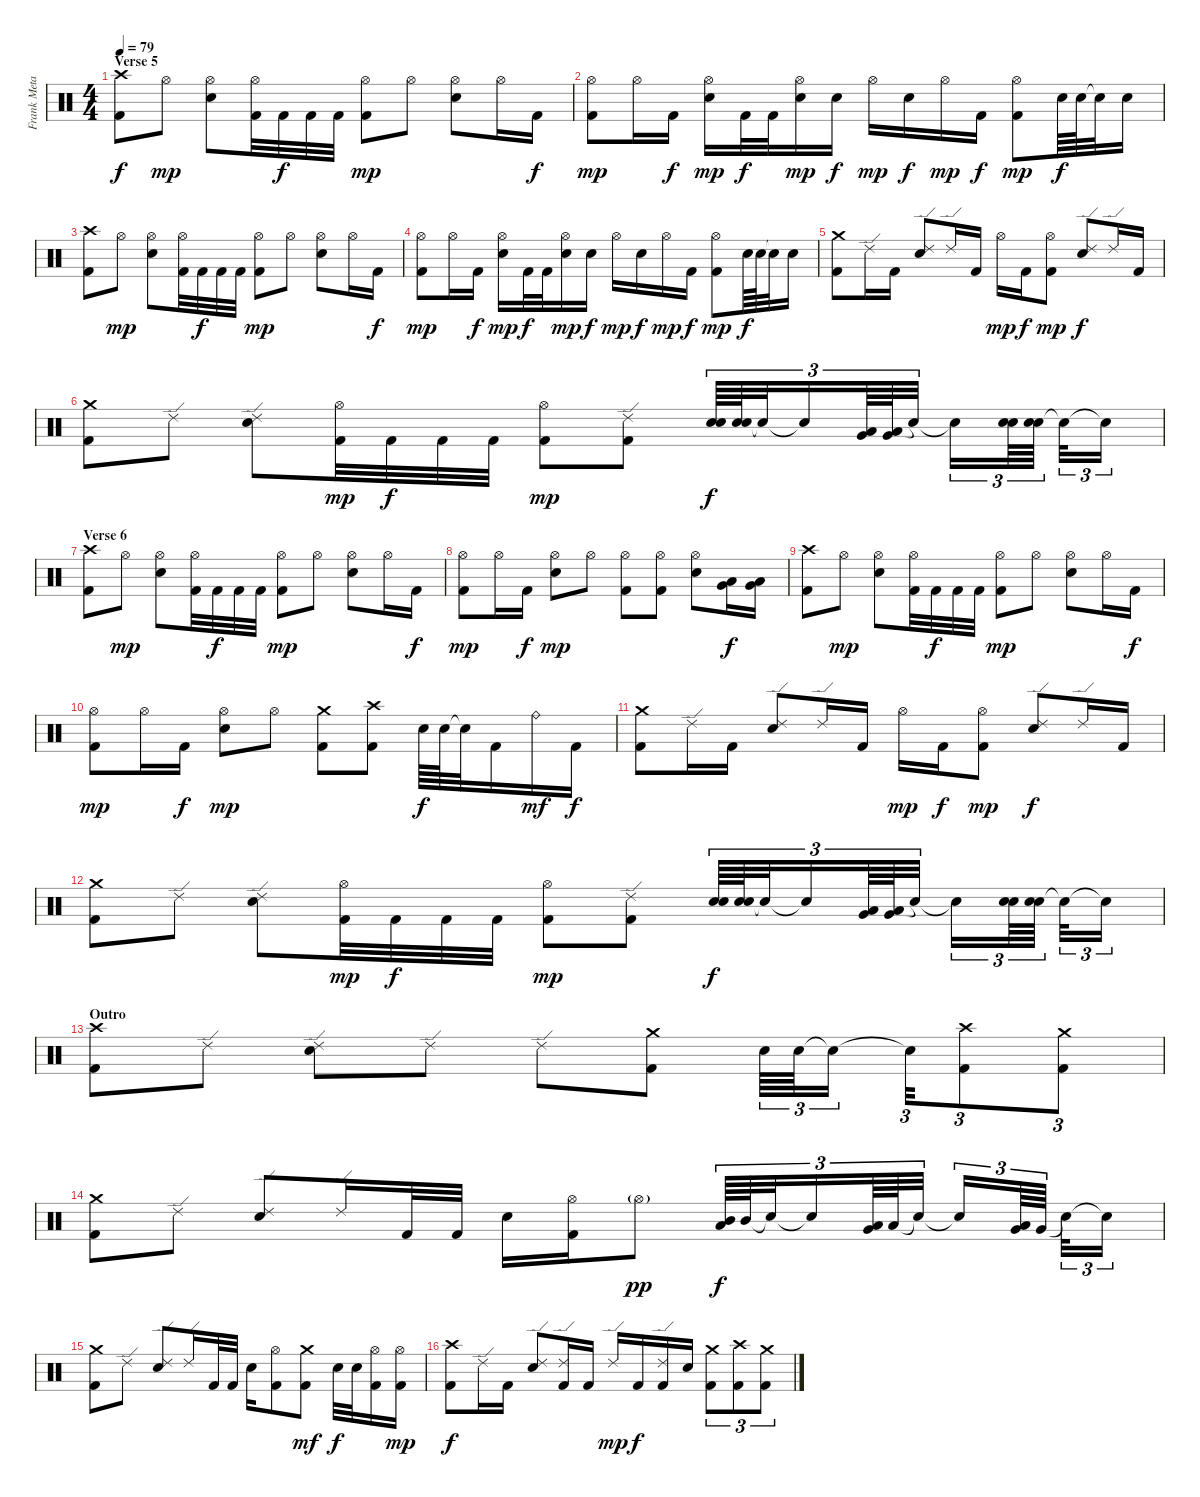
\track ("Frank Metayer" "Frank Meta") {instrument percussion}
\staff {score}
\articulation defaults
\ts (4 4)
\section ("" "Verse 5")
\tempo 79
\clef neutral
\ks c
("Kick (hit) 2" "Crash high (hit)").8{dy f} "Hi-Hat (open)".8{dy mp} ("Hi-Hat (open)" "Snare (hit) 2").8 ("Kick (hit) 2" "Hi-Hat (open)").32 "Kick (hit) 2".32{dy f} "Kick (hit) 2".32 "Kick (hit) 2".32 ("Kick (hit) 2" "Hi-Hat (open)").8{dy mp} "Hi-Hat (open)".8 ("Hi-Hat (open)" "Snare (hit) 2").8 "Hi-Hat (open)".16 "Kick (hit) 2".16{dy f} |
("Kick (hit) 2" "Hi-Hat (open)").8{dy mp} "Hi-Hat (open)".16 "Kick (hit) 2".16{dy f} ("Hi-Hat (open)" "Snare (hit) 2").16{dy mp} "Kick (hit) 2".32{dy f} "Kick (hit) 2".32 ("Hi-Hat (open)" "Snare (hit) 2").16{dy mp} "Snare (hit) 2".16{dy f} "Hi-Hat (open)".16{dy mp} "Snare (hit) 2".16{dy f} "Hi-Hat (open)".16{dy mp} "Kick (hit) 2".16{dy f} ("Kick (hit) 2" "Hi-Hat (open)").8{dy mp} "Snare (hit) 2".64{dy f} "Snare (hit) 2".64 "Snare (hit)"{t}.32 "Snare (hit) 2".16 |
("Kick (hit) 2" "Crash high (hit)").8 "Hi-Hat (open)".8{dy mp} ("Hi-Hat (open)" "Snare (hit) 2").8 ("Kick (hit) 2" "Hi-Hat (open)").32 "Kick (hit) 2".32{dy f} "Kick (hit) 2".32 "Kick (hit) 2".32 ("Kick (hit) 2" "Hi-Hat (open)").8{dy mp} "Hi-Hat (open)".8 ("Hi-Hat (open)" "Snare (hit) 2").8 "Hi-Hat (open)".16 "Kick (hit) 2".16{dy f} |
("Kick (hit) 2" "Hi-Hat (open)").8{dy mp} "Hi-Hat (open)".16 "Kick (hit) 2".16{dy f} ("Hi-Hat (open)" "Snare (hit) 2").16{dy mp} "Kick (hit) 2".32{dy f} "Kick (hit) 2".32 ("Hi-Hat (open)" "Snare (hit) 2").16{dy mp} "Snare (hit) 2".16{dy f} "Hi-Hat (open)".16{dy mp} "Snare (hit) 2".16{dy f} "Hi-Hat (open)".16{dy mp} "Kick (hit) 2".16{dy f} ("Kick (hit) 2" "Hi-Hat (open)").8{dy mp} "Snare (hit) 2".64{dy f} "Snare (hit) 2".64 "Snare (hit)"{t}.32 "Snare (hit) 2".16 |
("Kick (hit) 2" "Crash medium (hit)").8 "Ride (edge) 2".16 "Kick (hit) 2".16 ("Ride (edge) 2" "Snare (hit) 2").8 "Ride (edge) 2".16 "Kick (hit) 2".16 "Hi-Hat (open)".16{dy mp} "Kick (hit) 2".16{dy f} ("Kick (hit) 2" "Hi-Hat (open)").8{dy mp} ("Ride (edge) 2" "Snare (hit) 2").8{dy f} "Ride (edge) 2".16 "Kick (hit) 2".16 |
("Kick (hit) 2" "Crash medium (hit)").8 "Ride (edge) 2".8 ("Ride (edge) 2" "Snare (hit) 2").8 ("Kick (hit) 2" "Hi-Hat (open)").32{dy mp} "Kick (hit) 2".32{dy f} "Kick (hit) 2".32 "Kick (hit) 2".32 ("Kick (hit) 2" "Hi-Hat (open)").8{dy mp} ("Kick (hit) 2" "Ride (edge) 2").8 ("Snare (hit) 2" "Snare (hit) 2").64{tu (3 2) dy f} ("Snare (hit) 2" "Snare (hit) 2").64{tu (3 2)} "Snare (hit)"{t}.32{tu (3 2)} "Snare (hit)"{t}.16{tu (3 2)} ("Low Tom (hit)" "Very Low Tom (hit)").64{tu (3 2)} ("Low Tom (hit)" "Very Low Tom (hit)").64{tu (3 2)} "Snare (hit)"{t}.32{tu (3 2)} "Snare (hit)"{t}.16{tu (3 2)} ("Snare (hit) 2" "Snare (hit) 2").64{tu (3 2)} ("Snare (hit) 2" "Snare (hit) 2").64{tu (3 2)} "Snare (hit)"{t}.32{tu (3 2)} "Snare (hit)"{t}.16{tu (3 2)} |
\section ("" "Verse 6")
("Kick (hit) 2" "Crash high (hit)").8 "Hi-Hat (open)".8{dy mp} ("Hi-Hat (open)" "Snare (hit) 2").8 ("Kick (hit) 2" "Hi-Hat (open)").32 "Kick (hit) 2".32{dy f} "Kick (hit) 2".32 "Kick (hit) 2".32 ("Kick (hit) 2" "Hi-Hat (open)").8{dy mp} "Hi-Hat (open)".8 ("Hi-Hat (open)" "Snare (hit) 2").8 "Hi-Hat (open)".16 "Kick (hit) 2".16{dy f} |
("Kick (hit) 2" "Hi-Hat (open)").8{dy mp} "Hi-Hat (open)".16 "Kick (hit) 2".16{dy f} ("Hi-Hat (open)" "Snare (hit) 2").8{dy mp} "Hi-Hat (open)".8 ("Kick (hit) 2" "Hi-Hat (open)").8 ("Kick (hit) 2" "Hi-Hat (open)").8 ("Hi-Hat (open)" "Snare (hit) 2").8 ("Very Low Tom (hit)" "Low Floor Tom (hit)").16{dy f} ("Very Low Tom (hit)" "Low Floor Tom (hit)").16 |
("Kick (hit) 2" "Crash high (hit)").8 "Hi-Hat (open)".8{dy mp} ("Hi-Hat (open)" "Snare (hit) 2").8 ("Kick (hit) 2" "Hi-Hat (open)").32 "Kick (hit) 2".32{dy f} "Kick (hit) 2".32 "Kick (hit) 2".32 ("Kick (hit) 2" "Hi-Hat (open)").8{dy mp} "Hi-Hat (open)".8 ("Hi-Hat (open)" "Snare (hit) 2").8 "Hi-Hat (open)".16 "Kick (hit) 2".16{dy f} |
("Kick (hit) 2" "Hi-Hat (open)").8{dy mp} "Hi-Hat (open)".16 "Kick (hit) 2".16{dy f} ("Hi-Hat (open)" "Snare (hit) 2").8{dy mp} "Hi-Hat (open)".8 ("Kick (hit) 2" "Crash medium (hit)").8 ("Kick (hit) 2" "Crash high (hit)").8 "Snare (hit) 2".64{dy f} "Snare (hit) 2".64 "Snare (hit)"{t}.32 "Kick (hit) 2".16 "Ride (bell)".16{dy mf} "Kick (hit) 2".16{dy f} |
("Kick (hit) 2" "Crash medium (hit)").8 "Ride (edge) 2".16 "Kick (hit) 2".16 ("Ride (edge) 2" "Snare (hit) 2").8 "Ride (edge) 2".16 "Kick (hit) 2".16 "Hi-Hat (open)".16{dy mp} "Kick (hit) 2".16{dy f} ("Kick (hit) 2" "Hi-Hat (open)").8{dy mp} ("Ride (edge) 2" "Snare (hit) 2").8{dy f} "Ride (edge) 2".16 "Kick (hit) 2".16 |
("Kick (hit) 2" "Crash medium (hit)").8 "Ride (edge) 2".8 ("Ride (edge) 2" "Snare (hit) 2").8 ("Kick (hit) 2" "Hi-Hat (open)").32{dy mp} "Kick (hit) 2".32{dy f} "Kick (hit) 2".32 "Kick (hit) 2".32 ("Kick (hit) 2" "Hi-Hat (open)").8{dy mp} ("Kick (hit) 2" "Ride (edge) 2").8 ("Snare (hit) 2" "Snare (hit) 2").64{tu (3 2) dy f} ("Snare (hit) 2" "Snare (hit) 2").64{tu (3 2)} "Snare (hit)"{t}.32{tu (3 2)} "Snare (hit)"{t}.16{tu (3 2)} ("Low Tom (hit)" "Very Low Tom (hit)").64{tu (3 2)} ("Low Tom (hit)" "Very Low Tom (hit)").64{tu (3 2)} "Snare (hit)"{t}.32{tu (3 2)} "Snare (hit)"{t}.16{tu (3 2)} ("Snare (hit) 2" "Snare (hit) 2").64{tu (3 2)} ("Snare (hit) 2" "Snare (hit) 2").64{tu (3 2)} "Snare (hit)"{t}.32{tu (3 2)} "Snare (hit)"{t}.16{tu (3 2)} |
\section ("" "Outro")
("Kick (hit) 2" "Crash high (hit)").8 "Ride (edge) 2".8 ("Ride (edge) 2" "Snare (hit) 2").8 "Ride (edge) 2".8 "Ride (edge) 2".8 ("Kick (hit) 2" "Crash medium (hit)").8 "Snare (hit) 2".64{tu (3 2)} "Snare (hit) 2".64{tu (3 2)} "Snare (hit)"{t}.16{tu (3 2)} "Snare (hit)"{t}.32{tu (3 2)} ("Kick (hit) 2" "Crash high (hit)").8{tu (3 2)} ("Kick (hit) 2" "Crash medium (hit)").8{tu (3 2)} |
("Kick (hit) 2" "Crash medium (hit)").8 "Ride (edge) 2".8 ("Ride (edge) 2" "Snare (hit) 2").8 "Ride (edge) 2".16 "Kick (hit) 2".32 "Kick (hit) 2".32 "Snare (hit) 2".16 ("Kick (hit) 2" "Hi-Hat (open)").16 "Hi-Hat (open)"{g}.8{dy pp} ("Mid Tom (hit)" "Low Tom (hit)").64{tu (3 2) dy f} "Mid Tom (hit)".64{tu (3 2)} "Snare (hit)"{t}.32{tu (3 2)} "Snare (hit)"{t}.16{tu (3 2)} ("Low Tom (hit)" "Very Low Tom (hit)").64{tu (3 2)} "Low Tom (hit)".64{tu (3 2)} "Snare (hit)"{t}.32{tu (3 2)} "Snare (hit)"{t}.16{tu (3 2)} ("Very Low Tom (hit)" "Low Floor Tom (hit)").64{tu (3 2)} "Very Low Tom (hit)".64{tu (3 2)} "Snare (hit)"{t}.32{tu (3 2)} "Snare (hit)"{t}.16{tu (3 2)} |
("Kick (hit) 2" "Crash medium (hit)").8 "Ride (edge) 2".8 ("Ride (edge) 2" "Snare (hit) 2").8 "Ride (edge) 2".16 "Kick (hit) 2".32 "Kick (hit) 2".32 "Snare (hit) 2".16 ("Kick (hit) 2" "Hi-Hat (open)").8 ("Kick (hit) 2" "Crash medium (hit)").8{dy mf} "Snare (hit) 2".32{dy f} "Snare (hit) 2".32 ("Kick (hit) 2" "Hi-Hat (open)").16 ("Kick (hit) 2" "Hi-Hat (open)").16{dy mp} |
("Kick (hit) 2" "Crash high (hit)").8{dy f} "Ride (edge) 2".16 "Kick (hit) 2".16 ("Ride (edge) 2" "Snare (hit) 2").8 ("Kick (hit) 2" "Ride (edge) 2").16 "Kick (hit) 2".16 "Ride (edge) 2".16{dy mp} "Kick (hit) 2".16{dy f} ("Kick (hit) 2" "Ride (edge) 2").16 "Snare (hit) 2".16 ("Kick (hit) 2" "Crash medium (hit)").8{tu (3 2)} ("Kick (hit) 2" "Crash high (hit)").8{tu (3 2)} ("Kick (hit) 2" "Crash medium (hit)").8{tu (3 2)}
